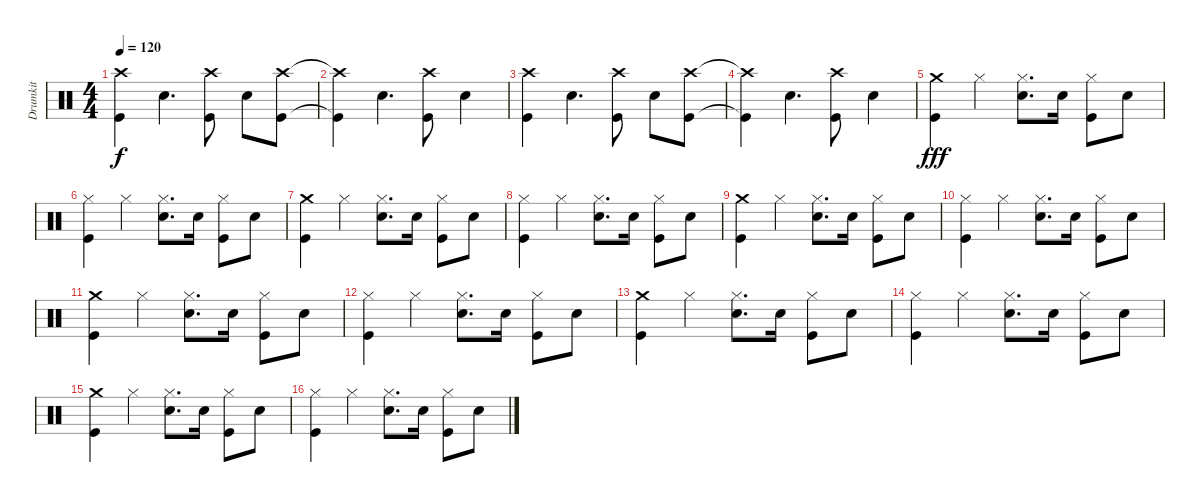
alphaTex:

\track ("Drumkit" "Drumkit") {instrument percussion}
\staff {score}
\articulation defaults
\ts (4 4)
\tempo 120
\clef neutral
\ks c
("Kick (hit)" "Crash high (hit)").4{dy f} "Snare (hit) 2".4{d} ("Kick (hit)" "Crash high (hit)").8 "Snare (hit) 2".8 ("Kick (hit)" "Crash high (hit)").8 |
("Kick (hit)"{t} "Crash high (hit)"{t}).4 "Snare (hit) 2".4{d} ("Kick (hit)" "Crash high (hit)").8 "Snare (hit) 2".4 |
("Kick (hit)" "Crash high (hit)").4 "Snare (hit) 2".4{d} ("Kick (hit)" "Crash high (hit)").8 "Snare (hit) 2".8 ("Kick (hit)" "Crash high (hit)").8 |
("Kick (hit)"{t} "Crash high (hit)"{t}).4 "Snare (hit) 2".4{d} ("Kick (hit)" "Crash high (hit)").8 "Snare (hit) 2".4 |
("Kick (hit)" "Crash medium (hit)").4{dy fff} "Hi-Hat (closed)".4 ("Snare (hit) 2" "Hi-Hat (closed)").8{d} "Snare (hit) 2".16 ("Hi-Hat (closed)" "Kick (hit)").8 "Snare (hit) 2".8 |
("Kick (hit)" "Hi-Hat (closed)").4 "Hi-Hat (closed)".4 ("Snare (hit) 2" "Hi-Hat (closed)").8{d} "Snare (hit) 2".16 ("Hi-Hat (closed)" "Kick (hit)").8 "Snare (hit) 2".8 |
("Kick (hit)" "Crash medium (hit)").4 "Hi-Hat (closed)".4 ("Snare (hit) 2" "Hi-Hat (closed)").8{d} "Snare (hit) 2".16 ("Hi-Hat (closed)" "Kick (hit)").8 "Snare (hit) 2".8 |
("Kick (hit)" "Hi-Hat (closed)").4 "Hi-Hat (closed)".4 ("Snare (hit) 2" "Hi-Hat (closed)").8{d} "Snare (hit) 2".16 ("Hi-Hat (closed)" "Kick (hit)").8 "Snare (hit) 2".8 |
("Kick (hit)" "Crash medium (hit)").4 "Hi-Hat (closed)".4 ("Snare (hit) 2" "Hi-Hat (closed)").8{d} "Snare (hit) 2".16 ("Hi-Hat (closed)" "Kick (hit)").8 "Snare (hit) 2".8 |
("Kick (hit)" "Hi-Hat (closed)").4 "Hi-Hat (closed)".4 ("Snare (hit) 2" "Hi-Hat (closed)").8{d} "Snare (hit) 2".16 ("Hi-Hat (closed)" "Kick (hit)").8 "Snare (hit) 2".8 |
("Kick (hit)" "Crash medium (hit)").4 "Hi-Hat (closed)".4 ("Snare (hit) 2" "Hi-Hat (closed)").8{d} "Snare (hit) 2".16 ("Hi-Hat (closed)" "Kick (hit)").8 "Snare (hit) 2".8 |
("Kick (hit)" "Hi-Hat (closed)").4 "Hi-Hat (closed)".4 ("Snare (hit) 2" "Hi-Hat (closed)").8{d} "Snare (hit) 2".16 ("Hi-Hat (closed)" "Kick (hit)").8 "Snare (hit) 2".8 |
("Kick (hit)" "Crash medium (hit)").4 "Hi-Hat (closed)".4 ("Snare (hit) 2" "Hi-Hat (closed)").8{d} "Snare (hit) 2".16 ("Hi-Hat (closed)" "Kick (hit)").8 "Snare (hit) 2".8 |
("Kick (hit)" "Hi-Hat (closed)").4 "Hi-Hat (closed)".4 ("Snare (hit) 2" "Hi-Hat (closed)").8{d} "Snare (hit) 2".16 ("Hi-Hat (closed)" "Kick (hit)").8 "Snare (hit) 2".8 |
("Kick (hit)" "Crash medium (hit)").4 "Hi-Hat (closed)".4 ("Snare (hit) 2" "Hi-Hat (closed)").8{d} "Snare (hit) 2".16 ("Hi-Hat (closed)" "Kick (hit)").8 "Snare (hit) 2".8 |
("Kick (hit)" "Hi-Hat (closed)").4 "Hi-Hat (closed)".4 ("Snare (hit) 2" "Hi-Hat (closed)").8{d} "Snare (hit) 2".16 ("Hi-Hat (closed)" "Kick (hit)").8 "Snare (hit) 2".8
